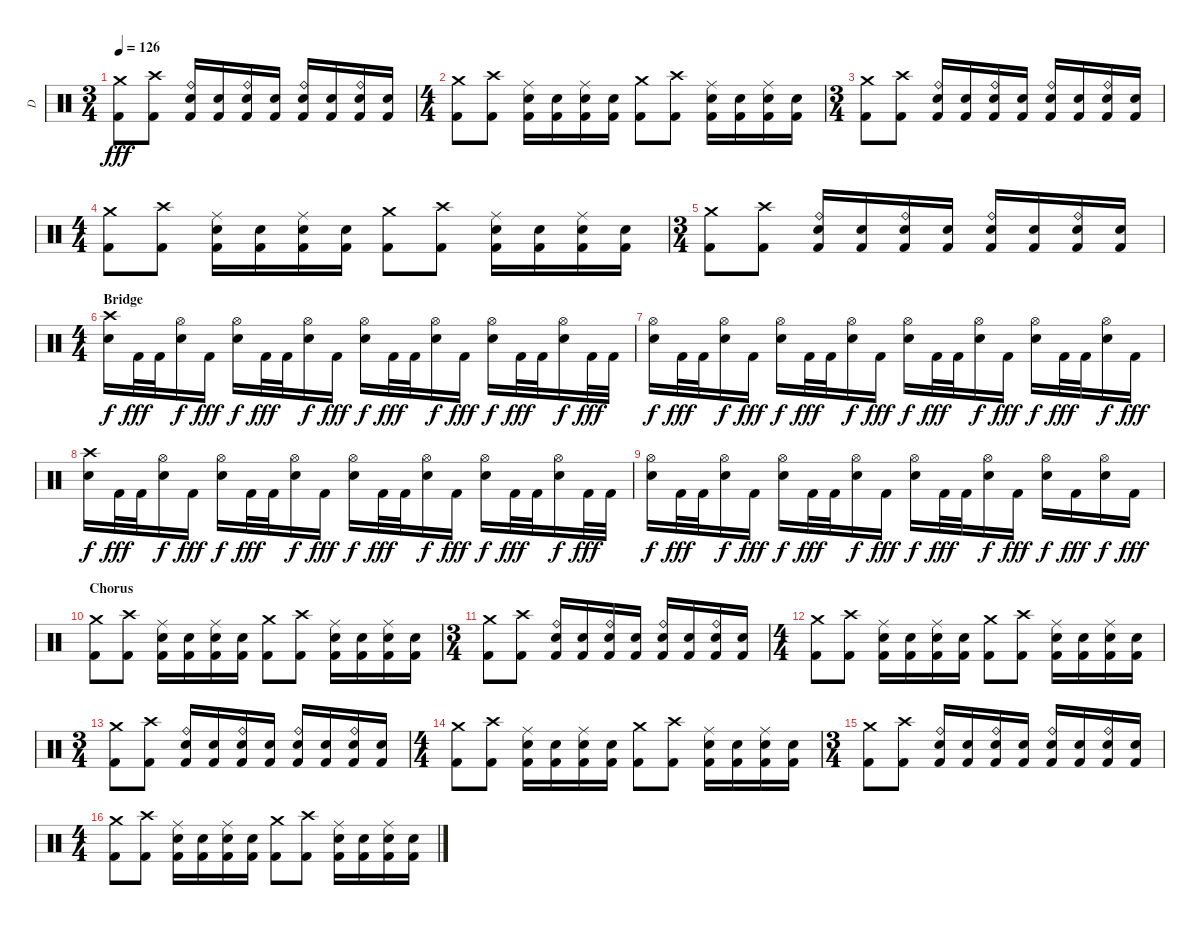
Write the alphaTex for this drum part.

\track ("D" "D") {instrument percussion}
\staff {score}
\articulation defaults
\ts (3 4)
\tempo 126
\clef neutral
\ks c
("Crash medium (hit)" "Kick (hit) 2").8{dy fff} ("Crash high (hit)" "Kick (hit) 2").8 ("Ride (bell)" "Electric Snare (hit)" "Kick (hit) 2").16 ("Electric Snare (hit)" "Kick (hit) 2").16 ("Ride (bell)" "Electric Snare (hit)" "Kick (hit) 2").16 ("Electric Snare (hit)" "Kick (hit) 2").16 ("Ride (bell)" "Electric Snare (hit)" "Kick (hit) 2").16 ("Electric Snare (hit)" "Kick (hit) 2").16 ("Ride (bell)" "Electric Snare (hit)" "Kick (hit) 2").16 ("Electric Snare (hit)" "Kick (hit) 2").16 |
\ts (4 4)
("Crash medium (hit)" "Kick (hit) 2").8 ("Crash high (hit)" "Kick (hit) 2").8 ("Ride (middle)" "Electric Snare (hit)" "Kick (hit) 2").16 ("Electric Snare (hit)" "Kick (hit) 2").16 ("Ride (middle)" "Electric Snare (hit)" "Kick (hit) 2").16 ("Electric Snare (hit)" "Kick (hit) 2").16 ("Crash medium (hit)" "Kick (hit) 2").8 ("Crash high (hit)" "Kick (hit) 2").8 ("Ride (middle)" "Electric Snare (hit)" "Kick (hit) 2").16 ("Electric Snare (hit)" "Kick (hit) 2").16 ("Ride (middle)" "Electric Snare (hit)" "Kick (hit) 2").16 ("Electric Snare (hit)" "Kick (hit) 2").16 |
\ts (3 4)
("Crash medium (hit)" "Kick (hit) 2").8 ("Crash high (hit)" "Kick (hit) 2").8 ("Ride (bell)" "Electric Snare (hit)" "Kick (hit) 2").16 ("Electric Snare (hit)" "Kick (hit) 2").16 ("Ride (bell)" "Electric Snare (hit)" "Kick (hit) 2").16 ("Electric Snare (hit)" "Kick (hit) 2").16 ("Ride (bell)" "Electric Snare (hit)" "Kick (hit) 2").16 ("Electric Snare (hit)" "Kick (hit) 2").16 ("Ride (bell)" "Electric Snare (hit)" "Kick (hit) 2").16 ("Electric Snare (hit)" "Kick (hit) 2").16 |
\ts (4 4)
("Crash medium (hit)" "Kick (hit) 2").8 ("Crash high (hit)" "Kick (hit) 2").8 ("Ride (middle)" "Electric Snare (hit)" "Kick (hit) 2").16 ("Electric Snare (hit)" "Kick (hit) 2").16 ("Ride (middle)" "Electric Snare (hit)" "Kick (hit) 2").16 ("Electric Snare (hit)" "Kick (hit) 2").16 ("Crash medium (hit)" "Kick (hit) 2").8 ("Crash high (hit)" "Kick (hit) 2").8 ("Ride (middle)" "Electric Snare (hit)" "Kick (hit) 2").16 ("Electric Snare (hit)" "Kick (hit) 2").16 ("Ride (middle)" "Electric Snare (hit)" "Kick (hit) 2").16 ("Electric Snare (hit)" "Kick (hit) 2").16 |
\ts (3 4)
("Crash medium (hit)" "Kick (hit) 2").8 ("Crash high (hit)" "Kick (hit) 2").8 ("Ride (bell)" "Electric Snare (hit)" "Kick (hit) 2").16 ("Electric Snare (hit)" "Kick (hit) 2").16 ("Ride (bell)" "Electric Snare (hit)" "Kick (hit) 2").16 ("Electric Snare (hit)" "Kick (hit) 2").16 ("Ride (bell)" "Electric Snare (hit)" "Kick (hit) 2").16 ("Electric Snare (hit)" "Kick (hit) 2").16 ("Ride (bell)" "Electric Snare (hit)" "Kick (hit) 2").16 ("Electric Snare (hit)" "Kick (hit) 2").16 |
\ts (4 4)
\section ("" "Bridge")
("Crash high (hit)" "Electric Snare (hit)").16{dy f} "Kick (hit) 2".32{dy fff} "Kick (hit) 2".32 ("Hi-Hat (open)" "Electric Snare (hit)").16{dy f} "Kick (hit) 2".16{dy fff} ("Hi-Hat (open)" "Electric Snare (hit)").16{dy f} "Kick (hit) 2".32{dy fff} "Kick (hit) 2".32 ("Hi-Hat (open)" "Electric Snare (hit)").16{dy f} "Kick (hit) 2".16{dy fff} ("Hi-Hat (open)" "Electric Snare (hit)").16{dy f} "Kick (hit) 2".32{dy fff} "Kick (hit) 2".32 ("Hi-Hat (open)" "Electric Snare (hit)").16{dy f} "Kick (hit) 2".16{dy fff} ("Hi-Hat (open)" "Electric Snare (hit)").16{dy f} "Kick (hit) 2".32{dy fff} "Kick (hit) 2".32 ("Hi-Hat (open)" "Electric Snare (hit)").16{dy f} "Kick (hit) 2".32{dy fff} "Kick (hit) 2".32 |
("Hi-Hat (open)" "Electric Snare (hit)").16{dy f} "Kick (hit) 2".32{dy fff} "Kick (hit) 2".32 ("Hi-Hat (open)" "Electric Snare (hit)").16{dy f} "Kick (hit) 2".16{dy fff} ("Hi-Hat (open)" "Electric Snare (hit)").16{dy f} "Kick (hit) 2".32{dy fff} "Kick (hit) 2".32 ("Hi-Hat (open)" "Electric Snare (hit)").16{dy f} "Kick (hit) 2".16{dy fff} ("Hi-Hat (open)" "Electric Snare (hit)").16{dy f} "Kick (hit) 2".32{dy fff} "Kick (hit) 2".32 ("Hi-Hat (open)" "Electric Snare (hit)").16{dy f} "Kick (hit) 2".16{dy fff} ("Hi-Hat (open)" "Electric Snare (hit)").16{dy f} "Kick (hit) 2".32{dy fff} "Kick (hit) 2".32 ("Hi-Hat (open)" "Electric Snare (hit)").16{dy f} "Kick (hit) 2".16{dy fff} |
("Crash high (hit)" "Electric Snare (hit)").16{dy f} "Kick (hit) 2".32{dy fff} "Kick (hit) 2".32 ("Hi-Hat (open)" "Electric Snare (hit)").16{dy f} "Kick (hit) 2".16{dy fff} ("Hi-Hat (open)" "Electric Snare (hit)").16{dy f} "Kick (hit) 2".32{dy fff} "Kick (hit) 2".32 ("Hi-Hat (open)" "Electric Snare (hit)").16{dy f} "Kick (hit) 2".16{dy fff} ("Hi-Hat (open)" "Electric Snare (hit)").16{dy f} "Kick (hit) 2".32{dy fff} "Kick (hit) 2".32 ("Hi-Hat (open)" "Electric Snare (hit)").16{dy f} "Kick (hit) 2".16{dy fff} ("Hi-Hat (open)" "Electric Snare (hit)").16{dy f} "Kick (hit) 2".32{dy fff} "Kick (hit) 2".32 ("Hi-Hat (open)" "Electric Snare (hit)").16{dy f} "Kick (hit) 2".32{dy fff} "Kick (hit) 2".32 |
("Hi-Hat (open)" "Electric Snare (hit)").16{dy f} "Kick (hit) 2".32{dy fff} "Kick (hit) 2".32 ("Hi-Hat (open)" "Electric Snare (hit)").16{dy f} "Kick (hit) 2".16{dy fff} ("Hi-Hat (open)" "Electric Snare (hit)").16{dy f} "Kick (hit) 2".32{dy fff} "Kick (hit) 2".32 ("Hi-Hat (open)" "Electric Snare (hit)").16{dy f} "Kick (hit) 2".16{dy fff} ("Hi-Hat (open)" "Electric Snare (hit)").16{dy f} "Kick (hit) 2".32{dy fff} "Kick (hit) 2".32 ("Hi-Hat (open)" "Electric Snare (hit)").16{dy f} "Kick (hit) 2".16{dy fff} ("Hi-Hat (open)" "Electric Snare (hit)").16{dy f} "Kick (hit) 2".16{dy fff} ("Hi-Hat (open)" "Electric Snare (hit)").16{dy f} "Kick (hit) 2".16{dy fff} |
\section ("" "Chorus")
("Crash medium (hit)" "Kick (hit) 2").8 ("Crash high (hit)" "Kick (hit) 2").8 ("Ride (middle)" "Electric Snare (hit)" "Kick (hit) 2").16 ("Electric Snare (hit)" "Kick (hit) 2").16 ("Ride (middle)" "Electric Snare (hit)" "Kick (hit) 2").16 ("Electric Snare (hit)" "Kick (hit) 2").16 ("Crash medium (hit)" "Kick (hit) 2").8 ("Crash high (hit)" "Kick (hit) 2").8 ("Ride (middle)" "Electric Snare (hit)" "Kick (hit) 2").16 ("Electric Snare (hit)" "Kick (hit) 2").16 ("Ride (middle)" "Electric Snare (hit)" "Kick (hit) 2").16 ("Electric Snare (hit)" "Kick (hit) 2").16 |
\ts (3 4)
("Crash medium (hit)" "Kick (hit) 2").8 ("Crash high (hit)" "Kick (hit) 2").8 ("Ride (bell)" "Electric Snare (hit)" "Kick (hit) 2").16 ("Electric Snare (hit)" "Kick (hit) 2").16 ("Ride (bell)" "Electric Snare (hit)" "Kick (hit) 2").16 ("Electric Snare (hit)" "Kick (hit) 2").16 ("Ride (bell)" "Electric Snare (hit)" "Kick (hit) 2").16 ("Electric Snare (hit)" "Kick (hit) 2").16 ("Ride (bell)" "Electric Snare (hit)" "Kick (hit) 2").16 ("Electric Snare (hit)" "Kick (hit) 2").16 |
\ts (4 4)
("Crash medium (hit)" "Kick (hit) 2").8 ("Crash high (hit)" "Kick (hit) 2").8 ("Ride (middle)" "Electric Snare (hit)" "Kick (hit) 2").16 ("Electric Snare (hit)" "Kick (hit) 2").16 ("Ride (middle)" "Electric Snare (hit)" "Kick (hit) 2").16 ("Electric Snare (hit)" "Kick (hit) 2").16 ("Crash medium (hit)" "Kick (hit) 2").8 ("Crash high (hit)" "Kick (hit) 2").8 ("Ride (middle)" "Electric Snare (hit)" "Kick (hit) 2").16 ("Electric Snare (hit)" "Kick (hit) 2").16 ("Ride (middle)" "Electric Snare (hit)" "Kick (hit) 2").16 ("Electric Snare (hit)" "Kick (hit) 2").16 |
\ts (3 4)
("Crash medium (hit)" "Kick (hit) 2").8 ("Crash high (hit)" "Kick (hit) 2").8 ("Ride (bell)" "Electric Snare (hit)" "Kick (hit) 2").16 ("Electric Snare (hit)" "Kick (hit) 2").16 ("Ride (bell)" "Electric Snare (hit)" "Kick (hit) 2").16 ("Electric Snare (hit)" "Kick (hit) 2").16 ("Ride (bell)" "Electric Snare (hit)" "Kick (hit) 2").16 ("Electric Snare (hit)" "Kick (hit) 2").16 ("Ride (bell)" "Electric Snare (hit)" "Kick (hit) 2").16 ("Electric Snare (hit)" "Kick (hit) 2").16 |
\ts (4 4)
("Crash medium (hit)" "Kick (hit) 2").8 ("Crash high (hit)" "Kick (hit) 2").8 ("Ride (middle)" "Electric Snare (hit)" "Kick (hit) 2").16 ("Electric Snare (hit)" "Kick (hit) 2").16 ("Ride (middle)" "Electric Snare (hit)" "Kick (hit) 2").16 ("Electric Snare (hit)" "Kick (hit) 2").16 ("Crash medium (hit)" "Kick (hit) 2").8 ("Crash high (hit)" "Kick (hit) 2").8 ("Ride (middle)" "Electric Snare (hit)" "Kick (hit) 2").16 ("Electric Snare (hit)" "Kick (hit) 2").16 ("Ride (middle)" "Electric Snare (hit)" "Kick (hit) 2").16 ("Electric Snare (hit)" "Kick (hit) 2").16 |
\ts (3 4)
("Crash medium (hit)" "Kick (hit) 2").8 ("Crash high (hit)" "Kick (hit) 2").8 ("Ride (bell)" "Electric Snare (hit)" "Kick (hit) 2").16 ("Electric Snare (hit)" "Kick (hit) 2").16 ("Ride (bell)" "Electric Snare (hit)" "Kick (hit) 2").16 ("Electric Snare (hit)" "Kick (hit) 2").16 ("Ride (bell)" "Electric Snare (hit)" "Kick (hit) 2").16 ("Electric Snare (hit)" "Kick (hit) 2").16 ("Ride (bell)" "Electric Snare (hit)" "Kick (hit) 2").16 ("Electric Snare (hit)" "Kick (hit) 2").16 |
\ts (4 4)
("Crash medium (hit)" "Kick (hit) 2").8 ("Crash high (hit)" "Kick (hit) 2").8 ("Ride (middle)" "Electric Snare (hit)" "Kick (hit) 2").16 ("Electric Snare (hit)" "Kick (hit) 2").16 ("Ride (middle)" "Electric Snare (hit)" "Kick (hit) 2").16 ("Electric Snare (hit)" "Kick (hit) 2").16 ("Crash medium (hit)" "Kick (hit) 2").8 ("Crash high (hit)" "Kick (hit) 2").8 ("Ride (middle)" "Electric Snare (hit)" "Kick (hit) 2").16 ("Electric Snare (hit)" "Kick (hit) 2").16 ("Ride (middle)" "Electric Snare (hit)" "Kick (hit) 2").16 ("Electric Snare (hit)" "Kick (hit) 2").16
